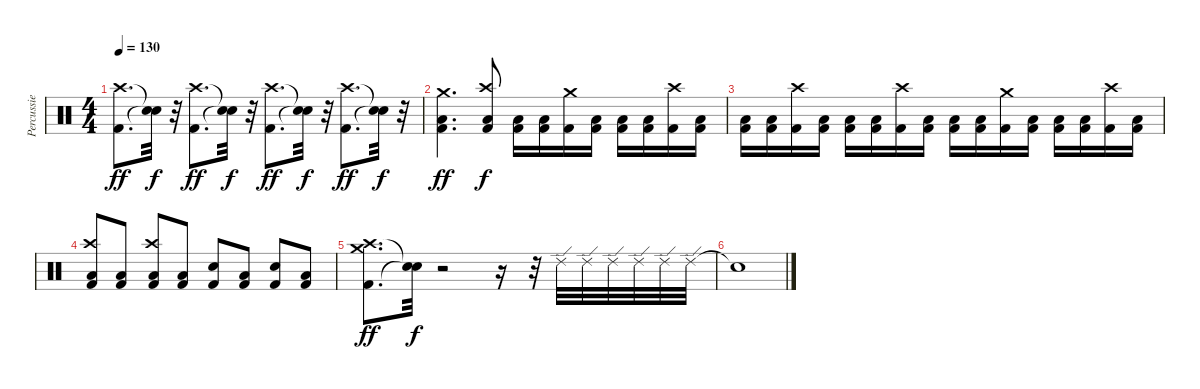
\track ("Percussie" "Percussie") {instrument percussion}
\staff {score}
\articulation defaults
\ts (4 4)
\tempo 130
\clef neutral
\ks c
("Kick (hit) 2" "Crash high (hit)").8{d dy ff} ("Snare (hit)"{t} "Snare (hit)"{t}).32{dy f} r.32 ("Kick (hit) 2" "Crash high (hit)").8{d dy ff} ("Snare (hit)"{t} "Snare (hit)"{t}).32{dy f} r.32 ("Kick (hit) 2" "Crash high (hit)").8{d dy ff} ("Snare (hit)"{t} "Snare (hit)"{t}).32{dy f} r.32 ("Kick (hit) 2" "Crash high (hit)").8{d dy ff} ("Snare (hit)"{t} "Snare (hit)"{t}).32{dy f} r.32 |
("Kick (hit) 2" "Low Tom (hit)" "Crash medium (hit)").4{d dy ff} ("Kick (hit) 2" "Low Tom (hit)" "Crash high (hit)").8{dy f} ("Kick (hit) 2" "Low Tom (hit)").16 ("Kick (hit) 2" "Low Tom (hit)").16 ("Kick (hit) 2" "Crash medium (hit)").16 ("Kick (hit) 2" "Low Tom (hit)").16 ("Kick (hit) 2" "Low Tom (hit)").16 ("Kick (hit) 2" "Low Tom (hit)").16 ("Kick (hit) 2" "Crash high (hit)").16 ("Kick (hit) 2" "Low Tom (hit)").16 |
("Kick (hit) 2" "Low Tom (hit)").16 ("Kick (hit) 2" "Low Tom (hit)").16 ("Kick (hit) 2" "Crash high (hit)").16 ("Kick (hit) 2" "Low Tom (hit)").16 ("Kick (hit) 2" "Low Tom (hit)").16 ("Kick (hit) 2" "Low Tom (hit)").16 ("Kick (hit) 2" "Crash high (hit)").16 ("Kick (hit) 2" "Low Tom (hit)").16 ("Kick (hit) 2" "Low Tom (hit)").16 ("Kick (hit) 2" "Low Tom (hit)").16 ("Kick (hit) 2" "Crash medium (hit)").16 ("Kick (hit) 2" "Low Tom (hit)").16 ("Kick (hit) 2" "Low Tom (hit)").16 ("Kick (hit) 2" "Low Tom (hit)").16 ("Kick (hit) 2" "Crash high (hit)").16 ("Kick (hit) 2" "Low Tom (hit)").16 |
("Kick (hit) 2" "Low Tom (hit)" "Crash high (hit)").8 ("Kick (hit) 2" "Low Tom (hit)").8 ("Kick (hit) 2" "Low Tom (hit)" "Crash high (hit)").8 ("Kick (hit) 2" "Low Tom (hit)").8 ("Kick (hit) 2" "Snare (hit) 2").8 ("Kick (hit) 2" "Low Tom (hit)").8 ("Kick (hit) 2" "Snare (hit) 2").8 ("Kick (hit) 2" "Low Tom (hit)").8 |
("Kick (hit) 2" "Crash high (hit)" "Crash medium (hit)").8{d dy ff} ("Snare (hit)"{t} "Snare (hit)"{t}).32{dy f} r.2 r.16 r.32 "Ride (edge) 2".32 "Ride (edge) 2".32 "Ride (edge) 2".32 "Ride (edge) 2".32 "Ride (edge) 2".32 "Ride (edge) 2".32 |
"Snare (hit)"{t}.1
